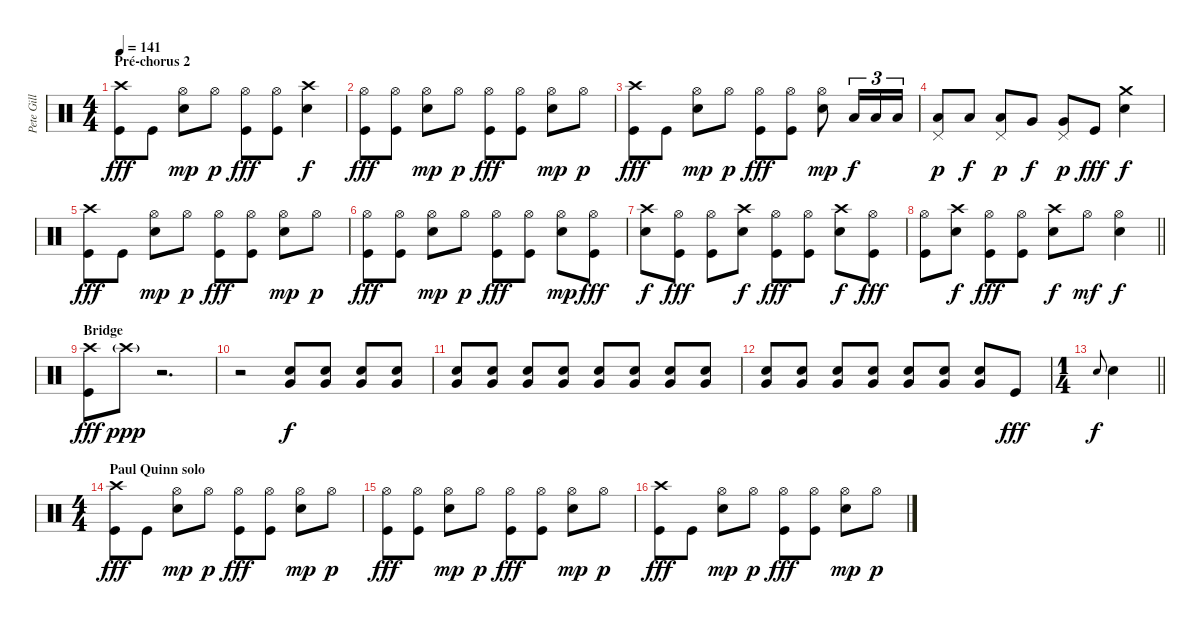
\track ("Pete Gill" "Pete Gill") {instrument percussion}
\staff {score}
\articulation defaults
\ts (4 4)
\section ("" "Pré-chorus 2")
\tempo 141
\clef neutral
\ks c
("Crash high (hit)" "Kick (hit)").8{dy fff} "Kick (hit)".8 ("Hi-Hat (open)" "Electric Snare (hit)").8{dy mp} "Hi-Hat (open)".8{dy p} ("Hi-Hat (open)" "Kick (hit)").8{dy fff} ("Hi-Hat (open)" "Kick (hit)").8 ("Crash high (hit)" "Electric Snare (hit)").4{dy f} |
("Hi-Hat (open)" "Kick (hit)").8{dy fff} ("Hi-Hat (open)" "Kick (hit)").8 ("Hi-Hat (open)" "Electric Snare (hit)").8{dy mp} "Hi-Hat (open)".8{dy p} ("Hi-Hat (open)" "Kick (hit)").8{dy fff} ("Hi-Hat (open)" "Kick (hit)").8 ("Hi-Hat (open)" "Electric Snare (hit)").8{dy mp} "Hi-Hat (open)".8{dy p} |
("Crash high (hit)" "Kick (hit)").8{dy fff} "Kick (hit)".8 ("Hi-Hat (open)" "Electric Snare (hit)").8{dy mp} "Hi-Hat (open)".8{dy p} ("Hi-Hat (open)" "Kick (hit)").8{dy fff} ("Hi-Hat (open)" "Kick (hit)").8 ("Hi-Hat (open)" "Electric Snare (hit)").8{dy mp} "Low Tom (hit)".16{tu (3 2) dy f} "Low Tom (hit)".16{tu (3 2)} "Low Tom (hit)".16{tu (3 2)} |
("Pedal Hi-Hat (hit)" "Low Tom (hit)").8{dy p} "Low Tom (hit)".8{dy f} ("Pedal Hi-Hat (hit)" "Low Tom (hit)").8{dy p} "Very Low Tom (hit)".8{dy f} ("Pedal Hi-Hat (hit)" "Very Low Tom (hit)").8{dy p} "Kick (hit)".8{dy fff} ("Crash medium (hit)" "Electric Snare (hit)").4{dy f} |
("Crash high (hit)" "Kick (hit)").8{dy fff} "Kick (hit)".8 ("Hi-Hat (open)" "Electric Snare (hit)").8{dy mp} "Hi-Hat (open)".8{dy p} ("Hi-Hat (open)" "Kick (hit)").8{dy fff} ("Hi-Hat (open)" "Kick (hit)").8 ("Hi-Hat (open)" "Electric Snare (hit)").8{dy mp} "Hi-Hat (open)".8{dy p} |
("Hi-Hat (open)" "Kick (hit)").8{dy fff} ("Hi-Hat (open)" "Kick (hit)").8 ("Hi-Hat (open)" "Electric Snare (hit)").8{dy mp} "Hi-Hat (open)".8{dy p} ("Hi-Hat (open)" "Kick (hit)").8{dy fff} ("Hi-Hat (open)" "Kick (hit)").8 ("Hi-Hat (open)" "Electric Snare (hit)").8{dy mp} ("Hi-Hat (open)" "Kick (hit)").8{dy fff} |
("Crash high (hit)" "Electric Snare (hit)").8{dy f} ("Hi-Hat (open)" "Kick (hit)").8{dy fff} ("Hi-Hat (open)" "Kick (hit)").8 ("Crash high (hit)" "Electric Snare (hit)").8{dy f} ("Hi-Hat (open)" "Kick (hit)").8{dy fff} ("Hi-Hat (open)" "Kick (hit)").8 ("Crash high (hit)" "Electric Snare (hit)").8{dy f} ("Hi-Hat (open)" "Kick (hit)").8{dy fff} |
\barLineRight lightlight
("Hi-Hat (open)" "Kick (hit)").8 ("Crash high (hit)" "Electric Snare (hit)").8{dy f} ("Hi-Hat (open)" "Kick (hit)").8{dy fff} ("Hi-Hat (open)" "Kick (hit)").8 ("Crash high (hit)" "Electric Snare (hit)").8{dy f} "Hi-Hat (open)".8{dy mf} ("Hi-Hat (open)" "Electric Snare (hit)").4{dy f} |
\section ("" "Bridge")
("Crash high (hit)" "Kick (hit)").8{dy fff} "Crash high (hit)"{g}.8{dy ppp} r.2{d} |
r.2 ("Electric Snare (hit)" "Very Low Tom (hit)").8{dy f} ("Electric Snare (hit)" "Very Low Tom (hit)").8 ("Electric Snare (hit)" "Very Low Tom (hit)").8 ("Electric Snare (hit)" "Very Low Tom (hit)").8 |
("Electric Snare (hit)" "Very Low Tom (hit)").8 ("Electric Snare (hit)" "Very Low Tom (hit)").8 ("Electric Snare (hit)" "Very Low Tom (hit)").8 ("Electric Snare (hit)" "Very Low Tom (hit)").8 ("Electric Snare (hit)" "Very Low Tom (hit)").8 ("Electric Snare (hit)" "Very Low Tom (hit)").8 ("Electric Snare (hit)" "Very Low Tom (hit)").8 ("Electric Snare (hit)" "Very Low Tom (hit)").8 |
("Electric Snare (hit)" "Very Low Tom (hit)").8 ("Electric Snare (hit)" "Very Low Tom (hit)").8 ("Electric Snare (hit)" "Very Low Tom (hit)").8 ("Electric Snare (hit)" "Very Low Tom (hit)").8 ("Electric Snare (hit)" "Very Low Tom (hit)").8 ("Electric Snare (hit)" "Very Low Tom (hit)").8 ("Electric Snare (hit)" "Very Low Tom (hit)").8 "Kick (hit)".8{dy fff} |
\ts (1 4)
\barLineRight lightlight "Electric Snare (hit)".8{gr onbeat dy f} "Electric Snare (hit)".4
|
\ts (4 4)
\section ("" "Paul Quinn solo")
("Crash high (hit)" "Kick (hit)").8{dy fff} "Kick (hit)".8 ("Hi-Hat (open)" "Electric Snare (hit)").8{dy mp} "Hi-Hat (open)".8{dy p} ("Hi-Hat (open)" "Kick (hit)").8{dy fff} ("Hi-Hat (open)" "Kick (hit)").8 ("Hi-Hat (open)" "Electric Snare (hit)").8{dy mp} "Hi-Hat (open)".8{dy p} |
("Hi-Hat (open)" "Kick (hit)").8{dy fff} ("Hi-Hat (open)" "Kick (hit)").8 ("Hi-Hat (open)" "Electric Snare (hit)").8{dy mp} "Hi-Hat (open)".8{dy p} ("Hi-Hat (open)" "Kick (hit)").8{dy fff} ("Hi-Hat (open)" "Kick (hit)").8 ("Hi-Hat (open)" "Electric Snare (hit)").8{dy mp} "Hi-Hat (open)".8{dy p} |
("Crash high (hit)" "Kick (hit)").8{dy fff} "Kick (hit)".8 ("Hi-Hat (open)" "Electric Snare (hit)").8{dy mp} "Hi-Hat (open)".8{dy p} ("Hi-Hat (open)" "Kick (hit)").8{dy fff} ("Hi-Hat (open)" "Kick (hit)").8 ("Hi-Hat (open)" "Electric Snare (hit)").8{dy mp} "Hi-Hat (open)".8{dy p}
